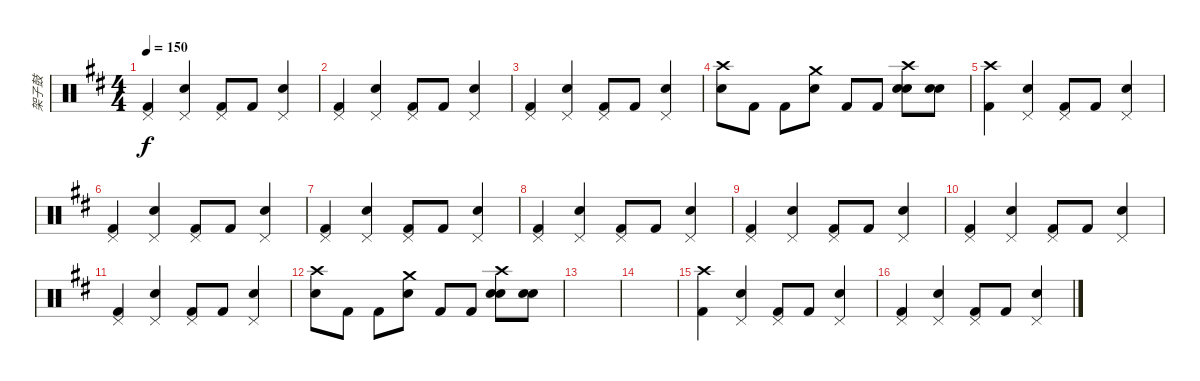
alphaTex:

\track ("架子鼓" "架子鼓") {instrument percussion}
\staff {score}
\articulation defaults
\ts (4 4)
\tempo 150
\clef neutral
\ks bminor
("Pedal Hi-Hat (hit)" "Kick (hit) 2").4{dy f} ("Pedal Hi-Hat (hit)" "Snare (hit) 2").4 ("Pedal Hi-Hat (hit)" "Kick (hit) 2").8 "Kick (hit) 2".8 ("Pedal Hi-Hat (hit)" "Snare (hit) 2").4 |
("Pedal Hi-Hat (hit)" "Kick (hit) 2").4 ("Pedal Hi-Hat (hit)" "Snare (hit) 2").4 ("Pedal Hi-Hat (hit)" "Kick (hit) 2").8 "Kick (hit) 2".8 ("Pedal Hi-Hat (hit)" "Snare (hit) 2").4 |
("Pedal Hi-Hat (hit)" "Kick (hit) 2").4 ("Pedal Hi-Hat (hit)" "Snare (hit) 2").4 ("Pedal Hi-Hat (hit)" "Kick (hit) 2").8 "Kick (hit) 2".8 ("Pedal Hi-Hat (hit)" "Snare (hit) 2").4 |
("Crash high (hit)" "Snare (hit) 2").8 "Kick (hit) 2".8 "Kick (hit) 2".8 ("Crash medium (hit)" "Snare (hit) 2").8 "Kick (hit) 2".8 "Kick (hit) 2".8 ("Crash high (hit)" "Snare (hit) 2" "Snare (hit) 2").8 ("Snare (hit) 2" "Snare (hit) 2").8 |
("Crash high (hit)" "Kick (hit) 2").4 ("Pedal Hi-Hat (hit)" "Snare (hit) 2").4 ("Pedal Hi-Hat (hit)" "Kick (hit) 2").8 "Kick (hit) 2".8 ("Pedal Hi-Hat (hit)" "Snare (hit) 2").4 |
("Pedal Hi-Hat (hit)" "Kick (hit) 2").4 ("Pedal Hi-Hat (hit)" "Snare (hit) 2").4 ("Pedal Hi-Hat (hit)" "Kick (hit) 2").8 "Kick (hit) 2".8 ("Pedal Hi-Hat (hit)" "Snare (hit) 2").4 |
("Pedal Hi-Hat (hit)" "Kick (hit) 2").4 ("Pedal Hi-Hat (hit)" "Snare (hit) 2").4 ("Pedal Hi-Hat (hit)" "Kick (hit) 2").8 "Kick (hit) 2".8 ("Pedal Hi-Hat (hit)" "Snare (hit) 2").4 |
("Pedal Hi-Hat (hit)" "Kick (hit) 2").4 ("Pedal Hi-Hat (hit)" "Snare (hit) 2").4 ("Pedal Hi-Hat (hit)" "Kick (hit) 2").8 "Kick (hit) 2".8 ("Pedal Hi-Hat (hit)" "Snare (hit) 2").4 |
("Pedal Hi-Hat (hit)" "Kick (hit) 2").4 ("Pedal Hi-Hat (hit)" "Snare (hit) 2").4 ("Pedal Hi-Hat (hit)" "Kick (hit) 2").8 "Kick (hit) 2".8 ("Pedal Hi-Hat (hit)" "Snare (hit) 2").4 |
("Pedal Hi-Hat (hit)" "Kick (hit) 2").4 ("Pedal Hi-Hat (hit)" "Snare (hit) 2").4 ("Pedal Hi-Hat (hit)" "Kick (hit) 2").8 "Kick (hit) 2".8 ("Pedal Hi-Hat (hit)" "Snare (hit) 2").4 |
("Pedal Hi-Hat (hit)" "Kick (hit) 2").4 ("Pedal Hi-Hat (hit)" "Snare (hit) 2").4 ("Pedal Hi-Hat (hit)" "Kick (hit) 2").8 "Kick (hit) 2".8 ("Pedal Hi-Hat (hit)" "Snare (hit) 2").4 |
("Crash high (hit)" "Snare (hit) 2").8 "Kick (hit) 2".8 "Kick (hit) 2".8 ("Crash medium (hit)" "Snare (hit) 2").8 "Kick (hit) 2".8 "Kick (hit) 2".8 ("Crash high (hit)" "Snare (hit) 2" "Snare (hit) 2").8 ("Snare (hit) 2" "Snare (hit) 2").8 |
|
|
("Crash high (hit)" "Kick (hit) 2").4 ("Pedal Hi-Hat (hit)" "Snare (hit) 2").4 ("Pedal Hi-Hat (hit)" "Kick (hit) 2").8 "Kick (hit) 2".8 ("Pedal Hi-Hat (hit)" "Snare (hit) 2").4 |
("Pedal Hi-Hat (hit)" "Kick (hit) 2").4 ("Pedal Hi-Hat (hit)" "Snare (hit) 2").4 ("Pedal Hi-Hat (hit)" "Kick (hit) 2").8 "Kick (hit) 2".8 ("Pedal Hi-Hat (hit)" "Snare (hit) 2").4
